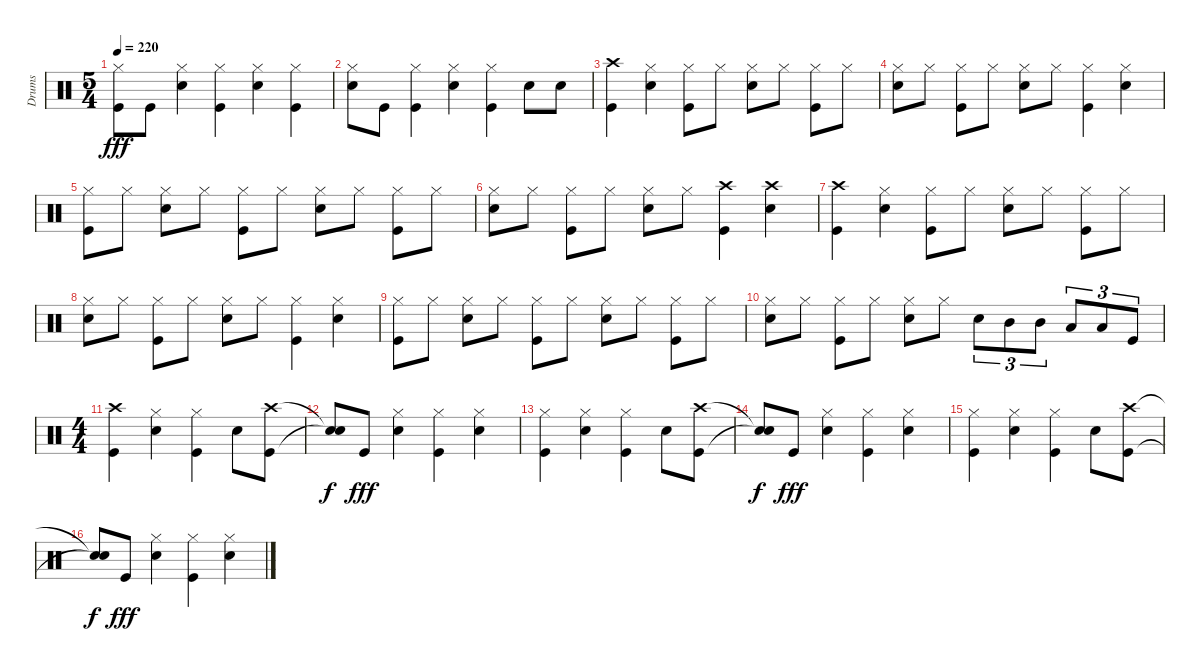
\track ("Drums" "Drums") {instrument percussion}
\staff {score}
\articulation defaults
\ts (5 4)
\tempo 220
\clef neutral
\ks c
("Hi-Hat (closed)" "Kick (hit)").8{dy fff} "Kick (hit)".8 ("Hi-Hat (closed)" "Snare (hit) 2").4 ("Hi-Hat (closed)" "Kick (hit)").4 ("Hi-Hat (closed)" "Snare (hit) 2").4 ("Hi-Hat (closed)" "Kick (hit)").4 |
("Hi-Hat (closed)" "Snare (hit) 2").8 "Kick (hit)".8 ("Hi-Hat (closed)" "Kick (hit)").4 ("Hi-Hat (closed)" "Snare (hit) 2").4 ("Hi-Hat (closed)" "Kick (hit)").4 "Snare (hit) 2".8 "Snare (hit) 2".8 |
("Crash high (hit)" "Kick (hit)").4 ("Hi-Hat (closed)" "Snare (hit) 2").4 ("Hi-Hat (closed)" "Kick (hit)").8 "Hi-Hat (closed)".8 ("Hi-Hat (closed)" "Snare (hit) 2").8 "Hi-Hat (closed)".8 ("Hi-Hat (closed)" "Kick (hit)").8 "Hi-Hat (closed)".8 |
("Hi-Hat (closed)" "Snare (hit) 2").8 "Hi-Hat (closed)".8 ("Hi-Hat (closed)" "Kick (hit)").8 "Hi-Hat (closed)".8 ("Hi-Hat (closed)" "Snare (hit) 2").8 "Hi-Hat (closed)".8 ("Hi-Hat (closed)" "Kick (hit)").4 ("Hi-Hat (closed)" "Snare (hit) 2").4 |
("Hi-Hat (closed)" "Kick (hit)").8 "Hi-Hat (closed)".8 ("Hi-Hat (closed)" "Snare (hit) 2").8 "Hi-Hat (closed)".8 ("Hi-Hat (closed)" "Kick (hit)").8 "Hi-Hat (closed)".8 ("Hi-Hat (closed)" "Snare (hit) 2").8 "Hi-Hat (closed)".8 ("Hi-Hat (closed)" "Kick (hit)").8 "Hi-Hat (closed)".8 |
("Hi-Hat (closed)" "Snare (hit) 2").8 "Hi-Hat (closed)".8 ("Hi-Hat (closed)" "Kick (hit)").8 "Hi-Hat (closed)".8 ("Hi-Hat (closed)" "Snare (hit) 2").8 "Hi-Hat (closed)".8 ("Crash high (hit)" "Kick (hit)").4 ("Crash high (hit)" "Snare (hit) 2").4 |
("Crash high (hit)" "Kick (hit)").4 ("Hi-Hat (closed)" "Snare (hit) 2").4 ("Hi-Hat (closed)" "Kick (hit)").8 "Hi-Hat (closed)".8 ("Hi-Hat (closed)" "Snare (hit) 2").8 "Hi-Hat (closed)".8 ("Hi-Hat (closed)" "Kick (hit)").8 "Hi-Hat (closed)".8 |
("Hi-Hat (closed)" "Snare (hit) 2").8 "Hi-Hat (closed)".8 ("Hi-Hat (closed)" "Kick (hit)").8 "Hi-Hat (closed)".8 ("Hi-Hat (closed)" "Snare (hit) 2").8 "Hi-Hat (closed)".8 ("Hi-Hat (closed)" "Kick (hit)").4 ("Hi-Hat (closed)" "Snare (hit) 2").4 |
("Hi-Hat (closed)" "Kick (hit)").8 "Hi-Hat (closed)".8 ("Hi-Hat (closed)" "Snare (hit) 2").8 "Hi-Hat (closed)".8 ("Hi-Hat (closed)" "Kick (hit)").8 "Hi-Hat (closed)".8 ("Hi-Hat (closed)" "Snare (hit) 2").8 "Hi-Hat (closed)".8 ("Hi-Hat (closed)" "Kick (hit)").8 "Hi-Hat (closed)".8 |
("Hi-Hat (closed)" "Snare (hit) 2").8 "Hi-Hat (closed)".8 ("Hi-Hat (closed)" "Kick (hit)").8 "Hi-Hat (closed)".8 ("Hi-Hat (closed)" "Snare (hit) 2").8 "Hi-Hat (closed)".8 "Snare (hit) 2".8{tu (3 2)} "Mid Tom (hit)".8{tu (3 2)} "Mid Tom (hit)".8{tu (3 2)} "Low Tom (hit)".8{tu (3 2)} "Low Tom (hit)".8{tu (3 2)} "Kick (hit)".8{tu (3 2)} |
\ts (4 4)
("Crash high (hit)" "Kick (hit)").4 ("Hi-Hat (closed)" "Snare (hit) 2").4 ("Hi-Hat (closed)" "Kick (hit)").4 "Snare (hit) 2".8 ("Crash high (hit)" "Kick (hit)").8 |
("Snare (hit)"{t} "Snare (hit)"{t}).8{dy f} "Kick (hit)".8{dy fff} ("Hi-Hat (closed)" "Snare (hit) 2").4 ("Hi-Hat (closed)" "Kick (hit)").4 ("Hi-Hat (closed)" "Snare (hit) 2").4 |
("Hi-Hat (closed)" "Kick (hit)").4 ("Hi-Hat (closed)" "Snare (hit) 2").4 ("Hi-Hat (closed)" "Kick (hit)").4 "Snare (hit) 2".8 ("Crash high (hit)" "Kick (hit)").8 |
("Snare (hit)"{t} "Snare (hit)"{t}).8{dy f} "Kick (hit)".8{dy fff} ("Hi-Hat (closed)" "Snare (hit) 2").4 ("Hi-Hat (closed)" "Kick (hit)").4 ("Hi-Hat (closed)" "Snare (hit) 2").4 |
("Hi-Hat (closed)" "Kick (hit)").4 ("Hi-Hat (closed)" "Snare (hit) 2").4 ("Hi-Hat (closed)" "Kick (hit)").4 "Snare (hit) 2".8 ("Crash high (hit)" "Kick (hit)").8 |
("Snare (hit)"{t} "Snare (hit)"{t}).8{dy f} "Kick (hit)".8{dy fff} ("Hi-Hat (closed)" "Snare (hit) 2").4 ("Hi-Hat (closed)" "Kick (hit)").4 ("Hi-Hat (closed)" "Snare (hit) 2").4
